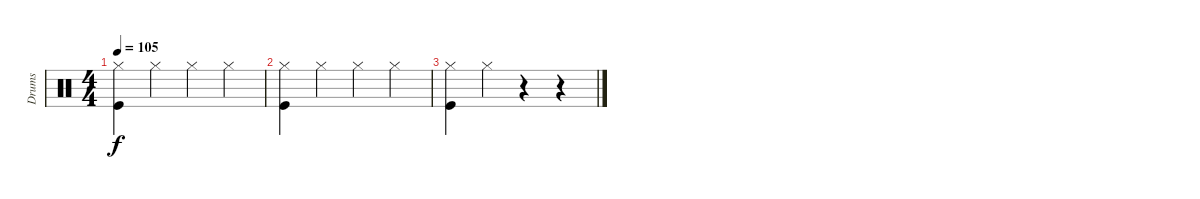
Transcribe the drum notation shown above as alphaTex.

\track ("Drums" "Drums") {instrument percussion}
\staff {score}
\articulation defaults
\ts (4 4)
\tempo 105
\clef neutral
\ks c
("Hi-Hat (closed)" "Kick (hit)").4{dy f} "Hi-Hat (closed)".4 "Hi-Hat (closed)".4 "Hi-Hat (closed)".4 |
("Hi-Hat (closed)" "Kick (hit)").4 "Hi-Hat (closed)".4 "Hi-Hat (closed)".4 "Hi-Hat (closed)".4 |
("Hi-Hat (closed)" "Kick (hit)").4 "Hi-Hat (closed)".4 r.4 r.4
